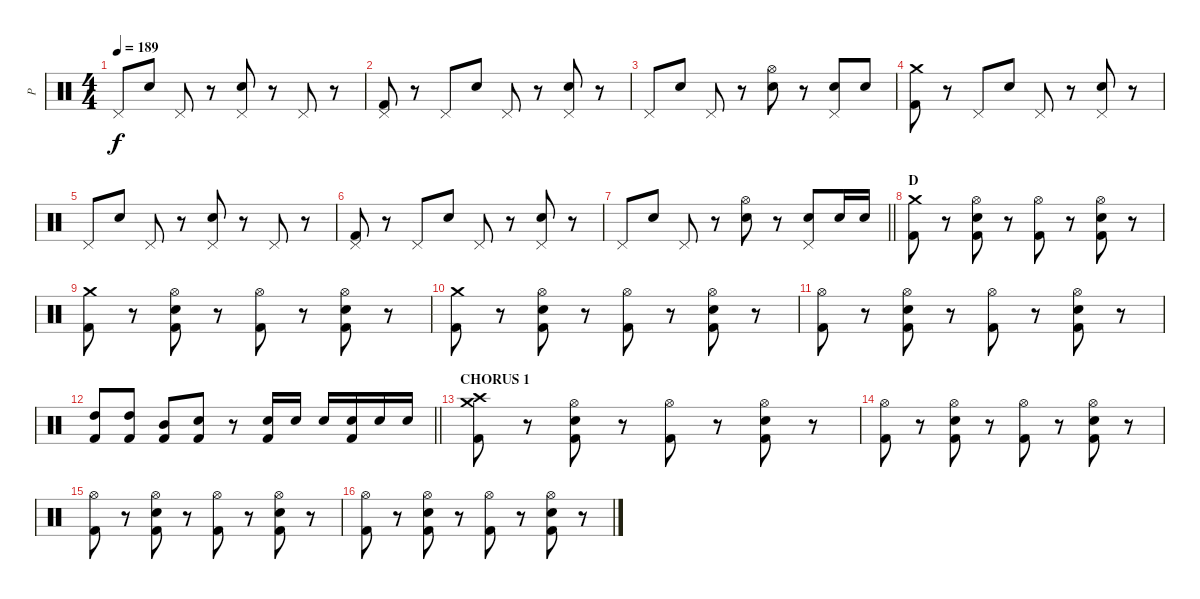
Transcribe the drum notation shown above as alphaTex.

\track ("P" "P") {instrument percussion}
\staff {score}
\articulation defaults
\ts (4 4)
\tempo 189
\clef neutral
\ks c "Pedal Hi-Hat (hit)".8{dy f} "Electric Snare (hit)".8 "Pedal Hi-Hat (hit)".8
r.8 ("Pedal Hi-Hat (hit)" "Electric Snare (hit)").8 r.8 "Pedal Hi-Hat (hit)".8 r.8 |
("Pedal Hi-Hat (hit)" "Kick (hit) 2").8 r.8 "Pedal Hi-Hat (hit)".8 "Electric Snare (hit)".8 "Pedal Hi-Hat (hit)".8 r.8 ("Pedal Hi-Hat (hit)" "Electric Snare (hit)").8 r.8 |
"Pedal Hi-Hat (hit)".8 "Electric Snare (hit)".8 "Pedal Hi-Hat (hit)".8 r.8 ("Hi-Hat (open)" "Electric Snare (hit)").8 r.8 ("Pedal Hi-Hat (hit)" "Electric Snare (hit)").8 "Electric Snare (hit)".8 |
("Crash medium (hit)" "Kick (hit) 2").8 r.8 "Pedal Hi-Hat (hit)".8 "Electric Snare (hit)".8 "Pedal Hi-Hat (hit)".8 r.8 ("Pedal Hi-Hat (hit)" "Electric Snare (hit)").8 r.8 |
"Pedal Hi-Hat (hit)".8 "Electric Snare (hit)".8 "Pedal Hi-Hat (hit)".8 r.8 ("Pedal Hi-Hat (hit)" "Electric Snare (hit)").8 r.8 "Pedal Hi-Hat (hit)".8 r.8 |
("Pedal Hi-Hat (hit)" "Kick (hit) 2").8 r.8 "Pedal Hi-Hat (hit)".8 "Electric Snare (hit)".8 "Pedal Hi-Hat (hit)".8 r.8 ("Pedal Hi-Hat (hit)" "Electric Snare (hit)").8 r.8 |
\barLineRight lightlight "Pedal Hi-Hat (hit)".8 "Electric Snare (hit)".8 "Pedal Hi-Hat (hit)".8
r.8 ("Hi-Hat (open)" "Electric Snare (hit)").8 r.8 ("Pedal Hi-Hat (hit)" "Electric Snare (hit)").8 "Electric Snare (hit)".16 "Electric Snare (hit)".16 |
\section ("" "D")
("Crash medium (hit)" "Kick (hit) 2").8 r.8 ("Hi-Hat (open)" "Electric Snare (hit)" "Kick (hit) 2").8 r.8 ("Hi-Hat (open)" "Kick (hit) 2").8 r.8 ("Hi-Hat (open)" "Electric Snare (hit)" "Kick (hit) 2").8 r.8 |
("Crash medium (hit)" "Kick (hit) 2").8 r.8 ("Hi-Hat (open)" "Electric Snare (hit)" "Kick (hit) 2").8 r.8 ("Hi-Hat (open)" "Kick (hit) 2").8 r.8 ("Hi-Hat (open)" "Electric Snare (hit)" "Kick (hit) 2").8 r.8 |
("Crash medium (hit)" "Kick (hit) 2").8 r.8 ("Hi-Hat (open)" "Electric Snare (hit)" "Kick (hit) 2").8 r.8 ("Hi-Hat (open)" "Kick (hit) 2").8 r.8 ("Hi-Hat (open)" "Electric Snare (hit)" "Kick (hit) 2").8 r.8 |
("Hi-Hat (open)" "Kick (hit) 2").8 r.8 ("Hi-Hat (open)" "Electric Snare (hit)" "Kick (hit) 2").8 r.8 ("Hi-Hat (open)" "Kick (hit) 2").8 r.8 ("Hi-Hat (open)" "Electric Snare (hit)" "Kick (hit) 2").8 r.8 |
\barLineRight lightlight
("High Tom (hit)" "Kick (hit) 2").8 ("High Tom (hit)" "Kick (hit) 2").8 ("Mid Tom (hit)" "Kick (hit) 2").8 ("Snare (hit) 2" "Kick (hit) 2").8 r.8 ("Snare (hit) 2" "Kick (hit) 2").16 "Snare (hit) 2".16 "Snare (hit) 2".16 ("Snare (hit) 2" "Kick (hit) 2").16 "Snare (hit) 2".16 "Snare (hit) 2".16 |
\section ("" "CHORUS 1")
("Crash medium (hit)" "Crash high (hit)" "Kick (hit) 2").8 r.8 ("Hi-Hat (open)" "Electric Snare (hit)" "Kick (hit) 2").8 r.8 ("Hi-Hat (open)" "Kick (hit) 2").8 r.8 ("Hi-Hat (open)" "Electric Snare (hit)" "Kick (hit) 2").8 r.8 |
("Hi-Hat (open)" "Kick (hit) 2").8 r.8 ("Hi-Hat (open)" "Electric Snare (hit)" "Kick (hit) 2").8 r.8 ("Hi-Hat (open)" "Kick (hit) 2").8 r.8 ("Hi-Hat (open)" "Electric Snare (hit)" "Kick (hit) 2").8 r.8 |
("Hi-Hat (open)" "Kick (hit) 2").8 r.8 ("Hi-Hat (open)" "Electric Snare (hit)" "Kick (hit) 2").8 r.8 ("Hi-Hat (open)" "Kick (hit) 2").8 r.8 ("Hi-Hat (open)" "Electric Snare (hit)" "Kick (hit) 2").8 r.8 |
("Hi-Hat (open)" "Kick (hit) 2").8 r.8 ("Hi-Hat (open)" "Electric Snare (hit)" "Kick (hit) 2").8 r.8 ("Hi-Hat (open)" "Kick (hit) 2").8 r.8 ("Hi-Hat (open)" "Electric Snare (hit)" "Kick (hit) 2").8 r.8
